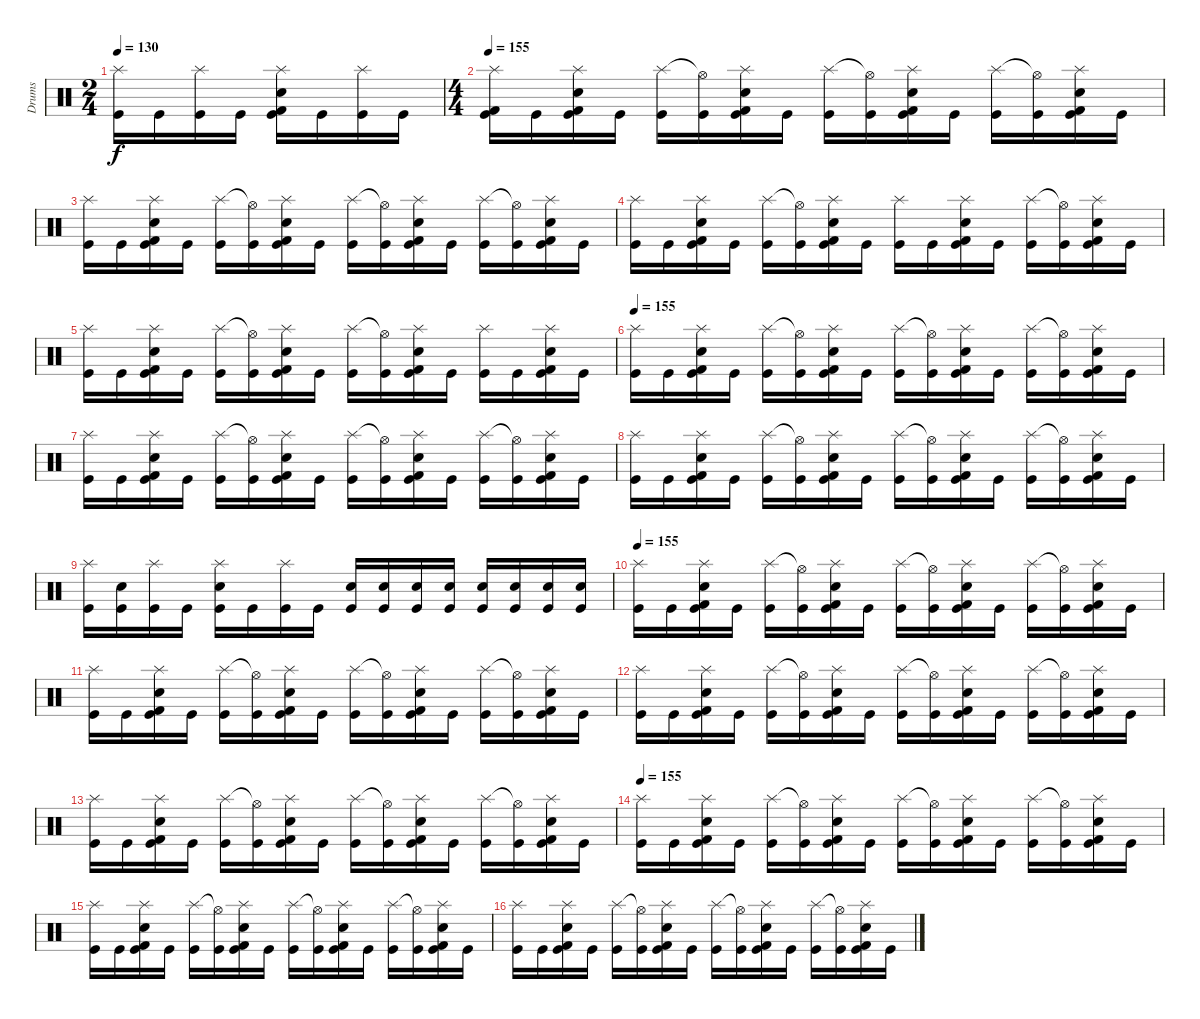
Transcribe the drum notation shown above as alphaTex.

\track ("Drums" "Drums") {instrument percussion}
\staff {score}
\articulation defaults
\ts (2 4)
\tempo 130
\clef neutral
\ks c
("Splash (hit)" "Kick (hit)").16{dy f} "Kick (hit)".16 ("Splash (hit)" "Kick (hit)").16 "Kick (hit)".16 ("Kick (hit) 2" "Electric Snare (hit)" "Splash (hit)" "Kick (hit)").16 "Kick (hit)".16 ("Splash (hit)" "Kick (hit)").16 "Kick (hit)".16 |
\ts (4 4)
\tempo 155
("Kick (hit) 2" "Splash (hit)" "Kick (hit)").16 "Kick (hit)".16 ("Kick (hit) 2" "Electric Snare (hit)" "Splash (hit)" "Kick (hit)").16 "Kick (hit)".16 ("Splash (hit)" "Kick (hit)").16 ("Hi-Hat (open)"{t} "Kick (hit)").16 ("Kick (hit) 2" "Electric Snare (hit)" "Splash (hit)" "Kick (hit)").16 "Kick (hit)".16 ("Splash (hit)" "Kick (hit)").16 ("Hi-Hat (open)"{t} "Kick (hit)").16 ("Kick (hit) 2" "Electric Snare (hit)" "Splash (hit)" "Kick (hit)").16 "Kick (hit)".16 ("Splash (hit)" "Kick (hit)").16 ("Hi-Hat (open)"{t} "Kick (hit)").16 ("Kick (hit) 2" "Electric Snare (hit)" "Splash (hit)" "Kick (hit)").16 "Kick (hit)".16 |
("Splash (hit)" "Kick (hit)").16 "Kick (hit)".16 ("Kick (hit) 2" "Electric Snare (hit)" "Splash (hit)" "Kick (hit)").16 "Kick (hit)".16 ("Splash (hit)" "Kick (hit)").16 ("Hi-Hat (open)"{t} "Kick (hit)").16 ("Kick (hit) 2" "Electric Snare (hit)" "Splash (hit)" "Kick (hit)").16 "Kick (hit)".16 ("Splash (hit)" "Kick (hit)").16 ("Hi-Hat (open)"{t} "Kick (hit)").16 ("Kick (hit) 2" "Electric Snare (hit)" "Splash (hit)" "Kick (hit)").16 "Kick (hit)".16 ("Splash (hit)" "Kick (hit)").16 ("Hi-Hat (open)"{t} "Kick (hit)").16 ("Kick (hit) 2" "Electric Snare (hit)" "Splash (hit)" "Kick (hit)").16 "Kick (hit)".16 |
("Splash (hit)" "Kick (hit)").16 "Kick (hit)".16 ("Kick (hit) 2" "Electric Snare (hit)" "Splash (hit)" "Kick (hit)").16 "Kick (hit)".16 ("Splash (hit)" "Kick (hit)").16 ("Hi-Hat (open)"{t} "Kick (hit)").16 ("Kick (hit) 2" "Electric Snare (hit)" "Splash (hit)" "Kick (hit)").16 "Kick (hit)".16 ("Splash (hit)" "Kick (hit)").16 "Kick (hit)".16 ("Kick (hit) 2" "Electric Snare (hit)" "Splash (hit)" "Kick (hit)").16 "Kick (hit)".16 ("Splash (hit)" "Kick (hit)").16 ("Hi-Hat (open)"{t} "Kick (hit)").16 ("Kick (hit) 2" "Electric Snare (hit)" "Splash (hit)" "Kick (hit)").16 "Kick (hit)".16 |
("Splash (hit)" "Kick (hit)").16 "Kick (hit)".16 ("Kick (hit) 2" "Electric Snare (hit)" "Splash (hit)" "Kick (hit)").16 "Kick (hit)".16 ("Splash (hit)" "Kick (hit)").16 ("Hi-Hat (open)"{t} "Kick (hit)").16 ("Kick (hit) 2" "Electric Snare (hit)" "Splash (hit)" "Kick (hit)").16 "Kick (hit)".16 ("Splash (hit)" "Kick (hit)").16 ("Hi-Hat (open)"{t} "Kick (hit)").16 ("Kick (hit) 2" "Electric Snare (hit)" "Splash (hit)" "Kick (hit)").16 "Kick (hit)".16 ("Splash (hit)" "Kick (hit)").16 "Kick (hit)".16 ("Kick (hit) 2" "Electric Snare (hit)" "Splash (hit)" "Kick (hit)").16 "Kick (hit)".16 |
\tempo 155
("Splash (hit)" "Kick (hit)").16 "Kick (hit)".16 ("Kick (hit) 2" "Electric Snare (hit)" "Splash (hit)" "Kick (hit)").16 "Kick (hit)".16 ("Splash (hit)" "Kick (hit)").16 ("Hi-Hat (open)"{t} "Kick (hit)").16 ("Kick (hit) 2" "Electric Snare (hit)" "Splash (hit)" "Kick (hit)").16 "Kick (hit)".16 ("Splash (hit)" "Kick (hit)").16 ("Hi-Hat (open)"{t} "Kick (hit)").16 ("Kick (hit) 2" "Electric Snare (hit)" "Splash (hit)" "Kick (hit)").16 "Kick (hit)".16 ("Splash (hit)" "Kick (hit)").16 ("Hi-Hat (open)"{t} "Kick (hit)").16 ("Kick (hit) 2" "Electric Snare (hit)" "Splash (hit)" "Kick (hit)").16 "Kick (hit)".16 |
("Splash (hit)" "Kick (hit)").16 "Kick (hit)".16 ("Kick (hit) 2" "Electric Snare (hit)" "Splash (hit)" "Kick (hit)").16 "Kick (hit)".16 ("Splash (hit)" "Kick (hit)").16 ("Hi-Hat (open)"{t} "Kick (hit)").16 ("Kick (hit) 2" "Electric Snare (hit)" "Splash (hit)" "Kick (hit)").16 "Kick (hit)".16 ("Splash (hit)" "Kick (hit)").16 ("Hi-Hat (open)"{t} "Kick (hit)").16 ("Kick (hit) 2" "Electric Snare (hit)" "Splash (hit)" "Kick (hit)").16 "Kick (hit)".16 ("Splash (hit)" "Kick (hit)").16 ("Hi-Hat (open)"{t} "Kick (hit)").16 ("Kick (hit) 2" "Electric Snare (hit)" "Splash (hit)" "Kick (hit)").16 "Kick (hit)".16 |
("Splash (hit)" "Kick (hit)").16 "Kick (hit)".16 ("Kick (hit) 2" "Electric Snare (hit)" "Splash (hit)" "Kick (hit)").16 "Kick (hit)".16 ("Splash (hit)" "Kick (hit)").16 ("Hi-Hat (open)"{t} "Kick (hit)").16 ("Kick (hit) 2" "Electric Snare (hit)" "Splash (hit)" "Kick (hit)").16 "Kick (hit)".16 ("Splash (hit)" "Kick (hit)").16 ("Hi-Hat (open)"{t} "Kick (hit)").16 ("Kick (hit) 2" "Electric Snare (hit)" "Splash (hit)" "Kick (hit)").16 "Kick (hit)".16 ("Splash (hit)" "Kick (hit)").16 ("Hi-Hat (open)"{t} "Kick (hit)").16 ("Kick (hit) 2" "Electric Snare (hit)" "Splash (hit)" "Kick (hit)").16 "Kick (hit)".16 |
("Splash (hit)" "Kick (hit)").16 ("Electric Snare (hit)" "Kick (hit)").16 ("Splash (hit)" "Kick (hit)").16 "Kick (hit)".16 ("Electric Snare (hit)" "Splash (hit)" "Kick (hit)").16 "Kick (hit)".16 ("Splash (hit)" "Kick (hit)").16 "Kick (hit)".16 ("Electric Snare (hit)" "Kick (hit)").16 ("Electric Snare (hit)" "Kick (hit)").16 ("Electric Snare (hit)" "Kick (hit)").16 ("Electric Snare (hit)" "Kick (hit)").16 ("Electric Snare (hit)" "Kick (hit)").16 ("Electric Snare (hit)" "Kick (hit)").16 ("Electric Snare (hit)" "Kick (hit)").16 ("Electric Snare (hit)" "Kick (hit)").16 |
\tempo 155
("Splash (hit)" "Kick (hit)").16 "Kick (hit)".16 ("Kick (hit) 2" "Electric Snare (hit)" "Splash (hit)" "Kick (hit)").16 "Kick (hit)".16 ("Splash (hit)" "Kick (hit)").16 ("Hi-Hat (open)"{t} "Kick (hit)").16 ("Kick (hit) 2" "Electric Snare (hit)" "Splash (hit)" "Kick (hit)").16 "Kick (hit)".16 ("Splash (hit)" "Kick (hit)").16 ("Hi-Hat (open)"{t} "Kick (hit)").16 ("Kick (hit) 2" "Electric Snare (hit)" "Splash (hit)" "Kick (hit)").16 "Kick (hit)".16 ("Splash (hit)" "Kick (hit)").16 ("Hi-Hat (open)"{t} "Kick (hit)").16 ("Kick (hit) 2" "Electric Snare (hit)" "Splash (hit)" "Kick (hit)").16 "Kick (hit)".16 |
("Splash (hit)" "Kick (hit)").16 "Kick (hit)".16 ("Kick (hit) 2" "Electric Snare (hit)" "Splash (hit)" "Kick (hit)").16 "Kick (hit)".16 ("Splash (hit)" "Kick (hit)").16 ("Hi-Hat (open)"{t} "Kick (hit)").16 ("Kick (hit) 2" "Electric Snare (hit)" "Splash (hit)" "Kick (hit)").16 "Kick (hit)".16 ("Splash (hit)" "Kick (hit)").16 ("Hi-Hat (open)"{t} "Kick (hit)").16 ("Kick (hit) 2" "Electric Snare (hit)" "Splash (hit)" "Kick (hit)").16 "Kick (hit)".16 ("Splash (hit)" "Kick (hit)").16 ("Hi-Hat (open)"{t} "Kick (hit)").16 ("Kick (hit) 2" "Electric Snare (hit)" "Splash (hit)" "Kick (hit)").16 "Kick (hit)".16 |
("Splash (hit)" "Kick (hit)").16 "Kick (hit)".16 ("Kick (hit) 2" "Electric Snare (hit)" "Splash (hit)" "Kick (hit)").16 "Kick (hit)".16 ("Splash (hit)" "Kick (hit)").16 ("Hi-Hat (open)"{t} "Kick (hit)").16 ("Kick (hit) 2" "Electric Snare (hit)" "Splash (hit)" "Kick (hit)").16 "Kick (hit)".16 ("Splash (hit)" "Kick (hit)").16 ("Hi-Hat (open)"{t} "Kick (hit)").16 ("Kick (hit) 2" "Electric Snare (hit)" "Splash (hit)" "Kick (hit)").16 "Kick (hit)".16 ("Splash (hit)" "Kick (hit)").16 ("Hi-Hat (open)"{t} "Kick (hit)").16 ("Kick (hit) 2" "Electric Snare (hit)" "Splash (hit)" "Kick (hit)").16 "Kick (hit)".16 |
("Splash (hit)" "Kick (hit)").16 "Kick (hit)".16 ("Kick (hit) 2" "Electric Snare (hit)" "Splash (hit)" "Kick (hit)").16 "Kick (hit)".16 ("Splash (hit)" "Kick (hit)").16 ("Hi-Hat (open)"{t} "Kick (hit)").16 ("Kick (hit) 2" "Electric Snare (hit)" "Splash (hit)" "Kick (hit)").16 "Kick (hit)".16 ("Splash (hit)" "Kick (hit)").16 ("Hi-Hat (open)"{t} "Kick (hit)").16 ("Kick (hit) 2" "Electric Snare (hit)" "Splash (hit)" "Kick (hit)").16 "Kick (hit)".16 ("Splash (hit)" "Kick (hit)").16 ("Hi-Hat (open)"{t} "Kick (hit)").16 ("Kick (hit) 2" "Electric Snare (hit)" "Splash (hit)" "Kick (hit)").16 "Kick (hit)".16 |
\tempo 155
("Splash (hit)" "Kick (hit)").16 "Kick (hit)".16 ("Kick (hit) 2" "Electric Snare (hit)" "Splash (hit)" "Kick (hit)").16 "Kick (hit)".16 ("Splash (hit)" "Kick (hit)").16 ("Hi-Hat (open)"{t} "Kick (hit)").16 ("Kick (hit) 2" "Electric Snare (hit)" "Splash (hit)" "Kick (hit)").16 "Kick (hit)".16 ("Splash (hit)" "Kick (hit)").16 ("Hi-Hat (open)"{t} "Kick (hit)").16 ("Kick (hit) 2" "Electric Snare (hit)" "Splash (hit)" "Kick (hit)").16 "Kick (hit)".16 ("Splash (hit)" "Kick (hit)").16 ("Hi-Hat (open)"{t} "Kick (hit)").16 ("Kick (hit) 2" "Electric Snare (hit)" "Splash (hit)" "Kick (hit)").16 "Kick (hit)".16 |
("Splash (hit)" "Kick (hit)").16 "Kick (hit)".16 ("Kick (hit) 2" "Electric Snare (hit)" "Splash (hit)" "Kick (hit)").16 "Kick (hit)".16 ("Splash (hit)" "Kick (hit)").16 ("Hi-Hat (open)"{t} "Kick (hit)").16 ("Kick (hit) 2" "Electric Snare (hit)" "Splash (hit)" "Kick (hit)").16 "Kick (hit)".16 ("Splash (hit)" "Kick (hit)").16 ("Hi-Hat (open)"{t} "Kick (hit)").16 ("Kick (hit) 2" "Electric Snare (hit)" "Splash (hit)" "Kick (hit)").16 "Kick (hit)".16 ("Splash (hit)" "Kick (hit)").16 ("Hi-Hat (open)"{t} "Kick (hit)").16 ("Kick (hit) 2" "Electric Snare (hit)" "Splash (hit)" "Kick (hit)").16 "Kick (hit)".16 |
("Splash (hit)" "Kick (hit)").16 "Kick (hit)".16 ("Kick (hit) 2" "Electric Snare (hit)" "Splash (hit)" "Kick (hit)").16 "Kick (hit)".16 ("Splash (hit)" "Kick (hit)").16 ("Hi-Hat (open)"{t} "Kick (hit)").16 ("Kick (hit) 2" "Electric Snare (hit)" "Splash (hit)" "Kick (hit)").16 "Kick (hit)".16 ("Splash (hit)" "Kick (hit)").16 ("Hi-Hat (open)"{t} "Kick (hit)").16 ("Kick (hit) 2" "Electric Snare (hit)" "Splash (hit)" "Kick (hit)").16 "Kick (hit)".16 ("Splash (hit)" "Kick (hit)").16 ("Hi-Hat (open)"{t} "Kick (hit)").16 ("Kick (hit) 2" "Electric Snare (hit)" "Splash (hit)" "Kick (hit)").16 "Kick (hit)".16
